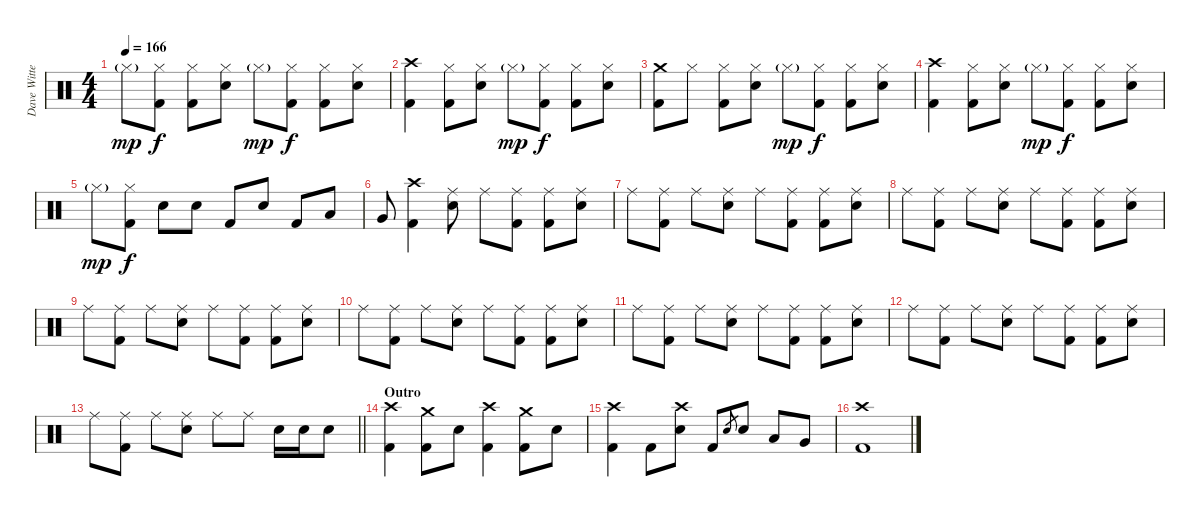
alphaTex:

\track ("Dave Witte" "Dave Witte") {instrument percussion}
\staff {score}
\articulation defaults
\ts (4 4)
\tempo 166
\clef neutral
\ks c "Hi-Hat (closed)"{g}.8{dy mp}
("Hi-Hat (closed)" "Kick (hit) 2").8{dy f} ("Hi-Hat (closed)" "Kick (hit) 2").8 ("Hi-Hat (closed)" "Electric Snare (hit)").8 "Hi-Hat (closed)"{g}.8{dy mp} ("Hi-Hat (closed)" "Kick (hit) 2").8{dy f} ("Hi-Hat (closed)" "Kick (hit) 2").8 ("Hi-Hat (closed)" "Electric Snare (hit)").8 |
("Crash high (hit)" "Kick (hit) 2").4 ("Hi-Hat (closed)" "Kick (hit) 2").8 ("Hi-Hat (closed)" "Electric Snare (hit)").8 "Hi-Hat (closed)"{g}.8{dy mp} ("Hi-Hat (closed)" "Kick (hit) 2").8{dy f} ("Hi-Hat (closed)" "Kick (hit) 2").8 ("Hi-Hat (closed)" "Electric Snare (hit)").8 |
("Crash medium (hit)" "Kick (hit) 2").8 "Hi-Hat (closed)".8 ("Hi-Hat (closed)" "Kick (hit) 2").8 ("Hi-Hat (closed)" "Electric Snare (hit)").8 "Hi-Hat (closed)"{g}.8{dy mp} ("Hi-Hat (closed)" "Kick (hit) 2").8{dy f} ("Hi-Hat (closed)" "Kick (hit) 2").8 ("Hi-Hat (closed)" "Electric Snare (hit)").8 |
("Crash high (hit)" "Kick (hit) 2").4 ("Hi-Hat (closed)" "Kick (hit) 2").8 ("Hi-Hat (closed)" "Electric Snare (hit)").8 "Hi-Hat (closed)"{g}.8{dy mp} ("Hi-Hat (closed)" "Kick (hit) 2").8{dy f} ("Hi-Hat (closed)" "Kick (hit) 2").8 ("Hi-Hat (closed)" "Electric Snare (hit)").8 |
"Hi-Hat (closed)"{g}.8{dy mp} ("Hi-Hat (closed)" "Kick (hit) 2").8{dy f} "Electric Snare (hit)".8 "Electric Snare (hit)".8 "Kick (hit) 2".8 "Electric Snare (hit)".8 "Kick (hit) 2".8 "Low Tom (hit)".8 |
"Very Low Tom (hit)".8 ("Crash high (hit)" "Kick (hit) 2").4 ("Ride (middle)" "Electric Snare (hit)").8 "Ride (middle)".8 ("Ride (middle)" "Kick (hit) 2").8 ("Ride (middle)" "Kick (hit) 2").8 ("Ride (middle)" "Electric Snare (hit)").8 |
"Ride (middle)".8 ("Ride (middle)" "Kick (hit) 2").8 "Ride (middle)".8 ("Ride (middle)" "Electric Snare (hit)").8 "Ride (middle)".8 ("Ride (middle)" "Kick (hit) 2").8 ("Ride (middle)" "Kick (hit) 2").8 ("Ride (middle)" "Electric Snare (hit)").8 |
"Ride (middle)".8 ("Ride (middle)" "Kick (hit) 2").8 "Ride (middle)".8 ("Ride (middle)" "Electric Snare (hit)").8 "Ride (middle)".8 ("Ride (middle)" "Kick (hit) 2").8 ("Ride (middle)" "Kick (hit) 2").8 ("Ride (middle)" "Electric Snare (hit)").8 |
"Ride (middle)".8 ("Ride (middle)" "Kick (hit) 2").8 "Ride (middle)".8 ("Ride (middle)" "Electric Snare (hit)").8 "Ride (middle)".8 ("Ride (middle)" "Kick (hit) 2").8 ("Ride (middle)" "Kick (hit) 2").8 ("Ride (middle)" "Electric Snare (hit)").8 |
"Ride (middle)".8 ("Ride (middle)" "Kick (hit) 2").8 "Ride (middle)".8 ("Ride (middle)" "Electric Snare (hit)").8 "Ride (middle)".8 ("Ride (middle)" "Kick (hit) 2").8 ("Ride (middle)" "Kick (hit) 2").8 ("Ride (middle)" "Electric Snare (hit)").8 |
"Ride (middle)".8 ("Ride (middle)" "Kick (hit) 2").8 "Ride (middle)".8 ("Ride (middle)" "Electric Snare (hit)").8 "Ride (middle)".8 ("Ride (middle)" "Kick (hit) 2").8 ("Ride (middle)" "Kick (hit) 2").8 ("Ride (middle)" "Electric Snare (hit)").8 |
"Ride (middle)".8 ("Ride (middle)" "Kick (hit) 2").8 "Ride (middle)".8 ("Ride (middle)" "Electric Snare (hit)").8 "Ride (middle)".8 ("Ride (middle)" "Kick (hit) 2").8 ("Ride (middle)" "Kick (hit) 2").8 ("Ride (middle)" "Electric Snare (hit)").8 |
\barLineRight lightlight "Ride (middle)".8
("Ride (middle)" "Kick (hit) 2").8 "Ride (middle)".8 ("Ride (middle)" "Electric Snare (hit)").8 "Ride (middle)".8 "Ride (middle)".8 "Electric Snare (hit)".16 "Electric Snare (hit)".16 "Electric Snare (hit)".8 |
\section ("" "Outro")
("Crash high (hit)" "Kick (hit) 2").4 ("Crash medium (hit)" "Kick (hit) 2").8 "Electric Snare (hit)".8 ("Crash high (hit)" "Kick (hit) 2").4 ("Crash medium (hit)" "Kick (hit) 2").8 "Electric Snare (hit)".8 |
("Crash high (hit)" "Kick (hit) 2").4 "Kick (hit) 2".8 ("Crash high (hit)" "Electric Snare (hit)").8 "Kick (hit) 2".8 "Electric Snare (hit)".8{gr} "Electric Snare (hit)".8 "Low Tom (hit)".8 "Very Low Tom (hit)".8 |
("Crash high (hit)" "Kick (hit) 2").1
